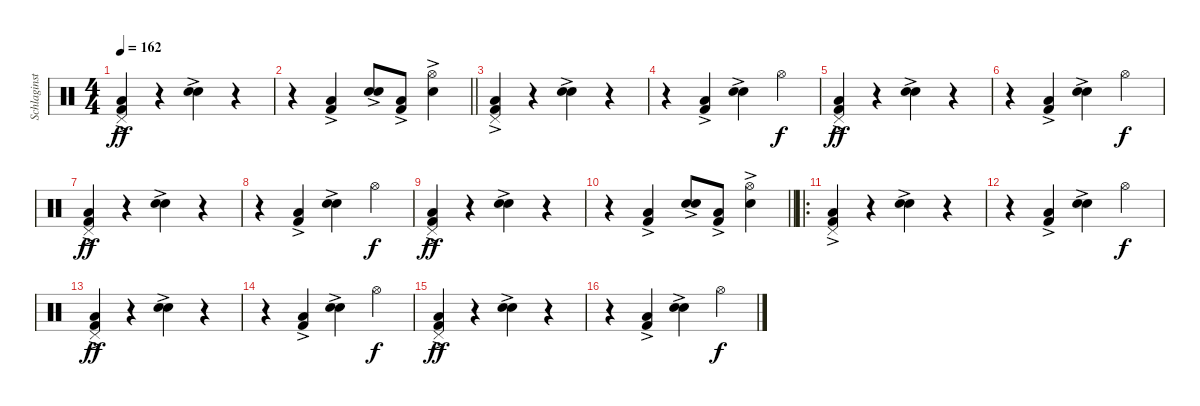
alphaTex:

\track ("Schlaginstrumente - Auswahl" "Schlaginst") {instrument percussion}
\staff {score}
\articulation defaults
\ts (4 4)
\tempo 162
\clef neutral
\ks c
("Pedal Hi-Hat (hit)" "Kick (hit) 2"{ac} "Low Floor Tom (hit)").4{dy ff} r.4 ("Hand Clap (hit)" "Electric Snare (hit)"{ac}).4 r.4 |
\barLineRight lightlight
r.4 ("Low Floor Tom (hit)" "Kick (hit) 2"{ac}).4 ("Hand Clap (hit)" "Electric Snare (hit)"{ac}).8 ("Low Floor Tom (hit)" "Kick (hit) 2"{ac}).8 ("Hi-Hat (open)" "Electric Snare (hit)"{ac}).4 |
("Pedal Hi-Hat (hit)" "Low Floor Tom (hit)" "Kick (hit) 2"{ac}).4 r.4 ("Hand Clap (hit)" "Electric Snare (hit)"{ac}).4 r.4 |
r.4 ("Low Floor Tom (hit)" "Kick (hit) 2"{ac}).4 ("Hand Clap (hit)" "Electric Snare (hit)"{ac}).4 "Hi-Hat (open)".4{dy f} |
("Pedal Hi-Hat (hit)" "Low Floor Tom (hit)" "Kick (hit) 2"{ac}).4{dy ff} r.4 ("Hand Clap (hit)" "Electric Snare (hit)"{ac}).4 r.4 |
r.4 ("Low Floor Tom (hit)" "Kick (hit) 2"{ac}).4 ("Hand Clap (hit)" "Electric Snare (hit)"{ac}).4 "Hi-Hat (open)".4{dy f} |
("Pedal Hi-Hat (hit)" "Low Floor Tom (hit)" "Kick (hit) 2"{ac}).4{dy ff} r.4 ("Hand Clap (hit)" "Electric Snare (hit)"{ac}).4 r.4 |
r.4 ("Low Floor Tom (hit)" "Kick (hit) 2"{ac}).4 ("Hand Clap (hit)" "Electric Snare (hit)"{ac}).4 "Hi-Hat (open)".4{dy f} |
("Pedal Hi-Hat (hit)" "Kick (hit) 2"{ac} "Low Floor Tom (hit)").4{dy ff} r.4 ("Hand Clap (hit)" "Electric Snare (hit)"{ac}).4 r.4 |
\barLineRight lightlight
r.4 ("Low Floor Tom (hit)" "Kick (hit) 2"{ac}).4 ("Hand Clap (hit)" "Electric Snare (hit)"{ac}).8 ("Low Floor Tom (hit)" "Kick (hit) 2"{ac}).8 ("Hi-Hat (open)" "Electric Snare (hit)"{ac}).4 |
\ro
("Pedal Hi-Hat (hit)" "Low Floor Tom (hit)" "Kick (hit) 2"{ac}).4 r.4 ("Hand Clap (hit)" "Electric Snare (hit)"{ac}).4 r.4 |
r.4 ("Low Floor Tom (hit)" "Kick (hit) 2"{ac}).4 ("Hand Clap (hit)" "Electric Snare (hit)"{ac}).4 "Hi-Hat (open)".4{dy f} |
("Pedal Hi-Hat (hit)" "Low Floor Tom (hit)" "Kick (hit) 2"{ac}).4{dy ff} r.4 ("Hand Clap (hit)" "Electric Snare (hit)"{ac}).4 r.4 |
r.4 ("Low Floor Tom (hit)" "Kick (hit) 2"{ac}).4 ("Hand Clap (hit)" "Electric Snare (hit)"{ac}).4 "Hi-Hat (open)".4{dy f} |
("Pedal Hi-Hat (hit)" "Low Floor Tom (hit)" "Kick (hit) 2"{ac}).4{dy ff} r.4 ("Hand Clap (hit)" "Electric Snare (hit)"{ac}).4 r.4 |
r.4 ("Low Floor Tom (hit)" "Kick (hit) 2"{ac}).4 ("Hand Clap (hit)" "Electric Snare (hit)"{ac}).4 "Hi-Hat (open)".4{dy f}
